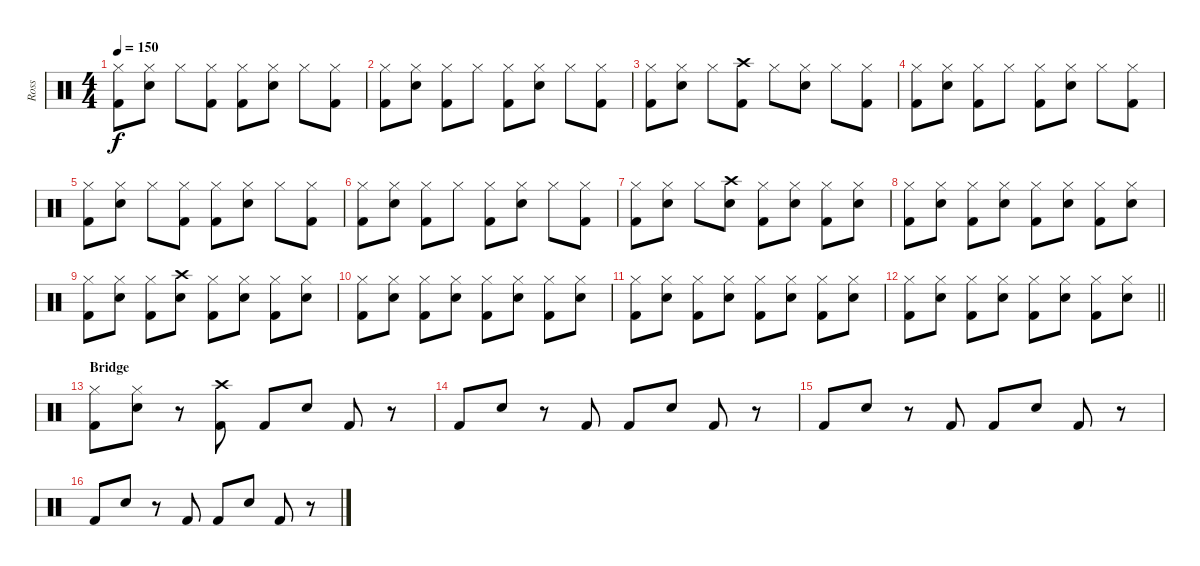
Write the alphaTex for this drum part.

\track ("Ross" "Ross") {instrument percussion}
\staff {score}
\articulation defaults
\ts (4 4)
\tempo 150
\clef neutral
\ks c
("Hi-Hat (closed)" "Kick (hit) 2").8{dy f} ("Hi-Hat (closed)" "Snare (hit) 2").8 "Hi-Hat (closed)".8 ("Hi-Hat (closed)" "Kick (hit) 2").8 ("Hi-Hat (closed)" "Kick (hit) 2").8 ("Hi-Hat (closed)" "Snare (hit) 2").8 "Hi-Hat (closed)".8 ("Hi-Hat (closed)" "Kick (hit) 2").8 |
("Hi-Hat (closed)" "Kick (hit) 2").8 ("Hi-Hat (closed)" "Snare (hit) 2").8 ("Hi-Hat (closed)" "Kick (hit) 2").8 "Hi-Hat (closed)".8 ("Hi-Hat (closed)" "Kick (hit) 2").8 ("Hi-Hat (closed)" "Snare (hit) 2").8 "Hi-Hat (closed)".8 ("Hi-Hat (closed)" "Kick (hit) 2").8 |
("Hi-Hat (closed)" "Kick (hit) 2").8 ("Hi-Hat (closed)" "Snare (hit) 2").8 "Hi-Hat (closed)".8 ("Crash high (hit)" "Kick (hit) 2").8 "Hi-Hat (closed)".8 ("Hi-Hat (closed)" "Snare (hit) 2").8 "Hi-Hat (closed)".8 ("Hi-Hat (closed)" "Kick (hit) 2").8 |
("Hi-Hat (closed)" "Kick (hit) 2").8 ("Hi-Hat (closed)" "Snare (hit) 2").8 ("Hi-Hat (closed)" "Kick (hit) 2").8 "Hi-Hat (closed)".8 ("Hi-Hat (closed)" "Kick (hit) 2").8 ("Hi-Hat (closed)" "Snare (hit) 2").8 "Hi-Hat (closed)".8 ("Hi-Hat (closed)" "Kick (hit) 2").8 |
("Hi-Hat (closed)" "Kick (hit) 2").8 ("Hi-Hat (closed)" "Snare (hit) 2").8 "Hi-Hat (closed)".8 ("Hi-Hat (closed)" "Kick (hit) 2").8 ("Hi-Hat (closed)" "Kick (hit) 2").8 ("Hi-Hat (closed)" "Snare (hit) 2").8 "Hi-Hat (closed)".8 ("Hi-Hat (closed)" "Kick (hit) 2").8 |
("Hi-Hat (closed)" "Kick (hit) 2").8 ("Hi-Hat (closed)" "Snare (hit) 2").8 ("Hi-Hat (closed)" "Kick (hit) 2").8 "Hi-Hat (closed)".8 ("Hi-Hat (closed)" "Kick (hit) 2").8 ("Hi-Hat (closed)" "Snare (hit) 2").8 "Hi-Hat (closed)".8 ("Hi-Hat (closed)" "Kick (hit) 2").8 |
("Hi-Hat (closed)" "Kick (hit) 2").8 ("Hi-Hat (closed)" "Snare (hit) 2").8 "Hi-Hat (closed)".8 ("Crash high (hit)" "Snare (hit) 2").8 ("Hi-Hat (closed)" "Kick (hit) 2").8 ("Hi-Hat (closed)" "Snare (hit) 2").8 ("Hi-Hat (closed)" "Kick (hit) 2").8 ("Hi-Hat (closed)" "Snare (hit) 2").8 |
("Hi-Hat (closed)" "Kick (hit) 2").8 ("Hi-Hat (closed)" "Snare (hit) 2").8 ("Hi-Hat (closed)" "Kick (hit) 2").8 ("Hi-Hat (closed)" "Snare (hit) 2").8 ("Hi-Hat (closed)" "Kick (hit) 2").8 ("Hi-Hat (closed)" "Snare (hit) 2").8 ("Hi-Hat (closed)" "Kick (hit) 2").8 ("Hi-Hat (closed)" "Snare (hit) 2").8 |
("Hi-Hat (closed)" "Kick (hit) 2").8 ("Hi-Hat (closed)" "Snare (hit) 2").8 ("Hi-Hat (closed)" "Kick (hit) 2").8 ("Crash high (hit)" "Snare (hit) 2").8 ("Hi-Hat (closed)" "Kick (hit) 2").8 ("Hi-Hat (closed)" "Snare (hit) 2").8 ("Hi-Hat (closed)" "Kick (hit) 2").8 ("Hi-Hat (closed)" "Snare (hit) 2").8 |
("Hi-Hat (closed)" "Kick (hit) 2").8 ("Hi-Hat (closed)" "Snare (hit) 2").8 ("Hi-Hat (closed)" "Kick (hit) 2").8 ("Hi-Hat (closed)" "Snare (hit) 2").8 ("Hi-Hat (closed)" "Kick (hit) 2").8 ("Hi-Hat (closed)" "Snare (hit) 2").8 ("Hi-Hat (closed)" "Kick (hit) 2").8 ("Hi-Hat (closed)" "Snare (hit) 2").8 |
("Hi-Hat (closed)" "Kick (hit) 2").8 ("Hi-Hat (closed)" "Snare (hit) 2").8 ("Hi-Hat (closed)" "Kick (hit) 2").8 ("Hi-Hat (closed)" "Snare (hit) 2").8 ("Hi-Hat (closed)" "Kick (hit) 2").8 ("Hi-Hat (closed)" "Snare (hit) 2").8 ("Hi-Hat (closed)" "Kick (hit) 2").8 ("Hi-Hat (closed)" "Snare (hit) 2").8 |
\barLineRight lightlight
("Hi-Hat (closed)" "Kick (hit) 2").8 ("Hi-Hat (closed)" "Snare (hit) 2").8 ("Hi-Hat (closed)" "Kick (hit) 2").8 ("Hi-Hat (closed)" "Snare (hit) 2").8 ("Hi-Hat (closed)" "Kick (hit) 2").8 ("Hi-Hat (closed)" "Snare (hit) 2").8 ("Hi-Hat (closed)" "Kick (hit) 2").8 ("Hi-Hat (closed)" "Snare (hit) 2").8 |
\section ("" "Bridge")
("Hi-Hat (closed)" "Kick (hit) 2").8 ("Hi-Hat (closed)" "Snare (hit) 2").8 r.8 ("Crash high (hit)" "Kick (hit) 2").8 "Kick (hit) 2".8 "Snare (hit) 2".8 "Kick (hit) 2".8 r.8 |
"Kick (hit) 2".8 "Snare (hit) 2".8 r.8 "Kick (hit) 2".8 "Kick (hit) 2".8 "Snare (hit) 2".8 "Kick (hit) 2".8 r.8 |
"Kick (hit) 2".8 "Snare (hit) 2".8 r.8 "Kick (hit) 2".8 "Kick (hit) 2".8 "Snare (hit) 2".8 "Kick (hit) 2".8 r.8 |
"Kick (hit) 2".8 "Snare (hit) 2".8 r.8 "Kick (hit) 2".8 "Kick (hit) 2".8 "Snare (hit) 2".8 "Kick (hit) 2".8 r.8
